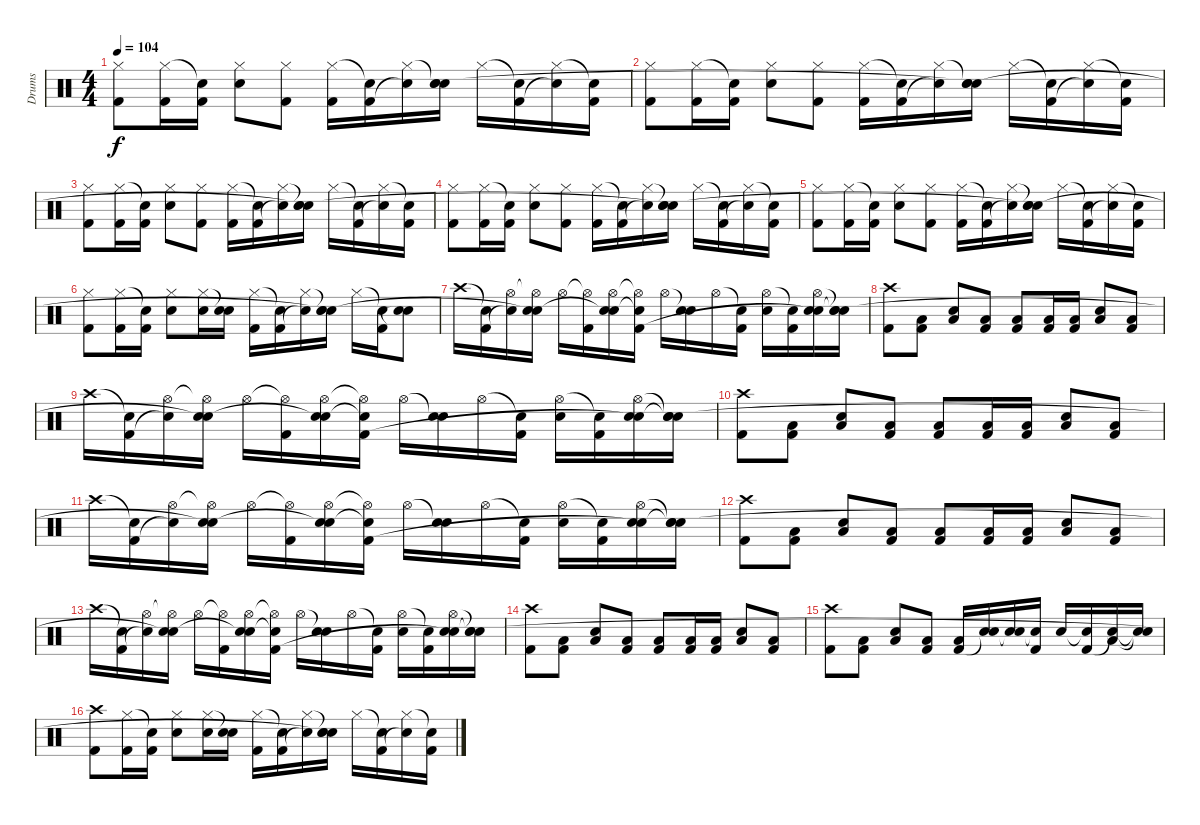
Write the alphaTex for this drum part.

\track ("Drums" "Drums") {instrument percussion}
\staff {score}
\articulation defaults
\ts (4 4)
\tempo 104
\clef neutral
\ks c
("Hi-Hat (closed)" "Kick (hit) 2").8{dy f} ("Hi-Hat (closed)" "Kick (hit) 2").16 ("Snare (hit)"{t} "Kick (hit) 2").16 ("Hi-Hat (closed)" "Snare (hit) 2").8 ("Hi-Hat (closed)" "Kick (hit) 2").8 ("Hi-Hat (closed)" "Kick (hit) 2").16 ("Snare (hit)"{t} "Kick (hit) 2").16 ("Hi-Hat (closed)" "Snare (hit)"{t}).16 ("Snare (hit)"{t} "Snare (hit) 2" "Snare (hit)"{t}).16 "Hi-Hat (closed)".16 ("Snare (hit)"{t} "Kick (hit) 2").16 ("Hi-Hat (closed)" "Snare (hit)"{t}).16 ("Snare (hit)"{t} "Kick (hit) 2").16 |
("Hi-Hat (closed)" "Kick (hit) 2").8 ("Hi-Hat (closed)" "Kick (hit) 2").16 ("Snare (hit)"{t} "Kick (hit) 2").16 ("Hi-Hat (closed)" "Snare (hit) 2").8 ("Hi-Hat (closed)" "Kick (hit) 2").8 ("Hi-Hat (closed)" "Kick (hit) 2").16 ("Snare (hit)"{t} "Kick (hit) 2").16 ("Hi-Hat (closed)" "Snare (hit)"{t}).16 ("Snare (hit)"{t} "Snare (hit) 2" "Snare (hit)"{t}).16 "Hi-Hat (closed)".16 ("Snare (hit)"{t} "Kick (hit) 2").16 ("Hi-Hat (closed)" "Snare (hit)"{t}).16 ("Snare (hit)"{t} "Kick (hit) 2").16 |
("Hi-Hat (closed)" "Kick (hit) 2").8 ("Hi-Hat (closed)" "Kick (hit) 2").16 ("Snare (hit)"{t} "Kick (hit) 2").16 ("Hi-Hat (closed)" "Snare (hit) 2").8 ("Hi-Hat (closed)" "Kick (hit) 2").8 ("Hi-Hat (closed)" "Kick (hit) 2").16 ("Snare (hit)"{t} "Kick (hit) 2").16 ("Hi-Hat (closed)" "Snare (hit)"{t}).16 ("Snare (hit)"{t} "Snare (hit) 2" "Snare (hit)"{t}).16 "Hi-Hat (closed)".16 ("Snare (hit)"{t} "Kick (hit) 2").16 ("Hi-Hat (closed)" "Snare (hit)"{t}).16 ("Snare (hit)"{t} "Kick (hit) 2").16 |
("Hi-Hat (closed)" "Kick (hit) 2").8 ("Hi-Hat (closed)" "Kick (hit) 2").16 ("Snare (hit)"{t} "Kick (hit) 2").16 ("Hi-Hat (closed)" "Snare (hit) 2").8 ("Hi-Hat (closed)" "Kick (hit) 2").8 ("Hi-Hat (closed)" "Kick (hit) 2").16 ("Snare (hit)"{t} "Kick (hit) 2").16 ("Hi-Hat (closed)" "Snare (hit)"{t}).16 ("Snare (hit)"{t} "Snare (hit) 2" "Snare (hit)"{t}).16 "Hi-Hat (closed)".16 ("Snare (hit)"{t} "Kick (hit) 2").16 ("Hi-Hat (closed)" "Snare (hit)"{t}).16 ("Snare (hit)"{t} "Kick (hit) 2").16 |
("Hi-Hat (closed)" "Kick (hit) 2").8 ("Hi-Hat (closed)" "Kick (hit) 2").16 ("Snare (hit)"{t} "Kick (hit) 2").16 ("Hi-Hat (closed)" "Snare (hit) 2").8 ("Hi-Hat (closed)" "Kick (hit) 2").8 ("Hi-Hat (closed)" "Kick (hit) 2").16 ("Snare (hit)"{t} "Kick (hit) 2").16 ("Hi-Hat (closed)" "Snare (hit)"{t}).16 ("Snare (hit)"{t} "Snare (hit) 2" "Snare (hit)"{t}).16 "Hi-Hat (closed)".16 ("Snare (hit)"{t} "Kick (hit) 2").16 ("Hi-Hat (closed)" "Snare (hit)"{t}).16 ("Snare (hit)"{t} "Kick (hit) 2").16 |
("Hi-Hat (closed)" "Kick (hit) 2").8 ("Hi-Hat (closed)" "Kick (hit) 2").16 ("Snare (hit)"{t} "Kick (hit) 2").16 ("Hi-Hat (closed)" "Snare (hit) 2").8 ("Hi-Hat (closed)" "Snare (hit) 2").16 ("Snare (hit)"{t} "Snare (hit) 2").16 ("Hi-Hat (closed)" "Kick (hit) 2").16 ("Snare (hit)"{t} "Kick (hit) 2").16 ("Hi-Hat (closed)" "Snare (hit)"{t}).16 ("Snare (hit)"{t} "Snare (hit) 2" "Snare (hit)"{t}).16 "Hi-Hat (closed)".16 ("Snare (hit)"{t} "Kick (hit) 2").16 ("Snare (hit) 2" "Snare (hit)"{t}).8 |
"Crash high (hit)".16 ("Snare (hit)"{t} "Kick (hit) 2").16 ("Hi-Hat (open)" "Snare (hit)"{t}).16 ("Hi-Hat (open)"{t} "Snare (hit) 2" "Snare (hit)"{t}).16 "Hi-Hat (open)".16 ("Hi-Hat (open)"{t} "Kick (hit) 2").16 ("Hi-Hat (open)" "Snare (hit) 2" "Snare (hit)"{t}).16 ("Hi-Hat (open)"{t} "Snare (hit)"{t} "Kick (hit) 2").16 "Hi-Hat (open)".16 ("Snare (hit)"{t} "Snare (hit) 2").16 "Hi-Hat (open)".16 ("Snare (hit)"{t} "Kick (hit) 2").16 ("Hi-Hat (open)" "Snare (hit) 2").16 ("Snare (hit)"{t} "Kick (hit) 2").16 ("Hi-Hat (open)" "Snare (hit) 2" "Snare (hit)"{t}).16 ("Snare (hit)"{t} "Snare (hit) 2" "Snare (hit)"{t}).16 |
("Crash high (hit)" "Kick (hit) 2").8 ("Low Tom (hit)" "Kick (hit) 2").8 ("Low Tom (hit)" "Snare (hit) 2").8 ("Low Tom (hit)" "Kick (hit) 2").8 ("Low Tom (hit)" "Kick (hit) 2").8 ("Low Tom (hit)" "Kick (hit) 2").16 ("Low Tom (hit)" "Kick (hit) 2").16 ("Low Tom (hit)" "Snare (hit) 2").8 ("Low Tom (hit)" "Kick (hit) 2").8 |
"Crash high (hit)".16 ("Snare (hit)"{t} "Kick (hit) 2").16 ("Hi-Hat (open)" "Snare (hit)"{t}).16 ("Hi-Hat (open)"{t} "Snare (hit) 2" "Snare (hit)"{t}).16 "Hi-Hat (open)".16 ("Hi-Hat (open)"{t} "Kick (hit) 2").16 ("Hi-Hat (open)" "Snare (hit) 2" "Snare (hit)"{t}).16 ("Hi-Hat (open)"{t} "Snare (hit)"{t} "Kick (hit) 2").16 "Hi-Hat (open)".16 ("Snare (hit)"{t} "Snare (hit) 2").16 "Hi-Hat (open)".16 ("Snare (hit)"{t} "Kick (hit) 2").16 ("Hi-Hat (open)" "Snare (hit) 2").16 ("Snare (hit)"{t} "Kick (hit) 2").16 ("Hi-Hat (open)" "Snare (hit) 2" "Snare (hit)"{t}).16 ("Snare (hit)"{t} "Snare (hit) 2" "Snare (hit)"{t}).16 |
("Crash high (hit)" "Kick (hit) 2").8 ("Low Tom (hit)" "Kick (hit) 2").8 ("Low Tom (hit)" "Snare (hit) 2").8 ("Low Tom (hit)" "Kick (hit) 2").8 ("Low Tom (hit)" "Kick (hit) 2").8 ("Low Tom (hit)" "Kick (hit) 2").16 ("Low Tom (hit)" "Kick (hit) 2").16 ("Low Tom (hit)" "Snare (hit) 2").8 ("Low Tom (hit)" "Kick (hit) 2").8 |
"Crash high (hit)".16 ("Snare (hit)"{t} "Kick (hit) 2").16 ("Hi-Hat (open)" "Snare (hit)"{t}).16 ("Hi-Hat (open)"{t} "Snare (hit) 2" "Snare (hit)"{t}).16 "Hi-Hat (open)".16 ("Hi-Hat (open)"{t} "Kick (hit) 2").16 ("Hi-Hat (open)" "Snare (hit) 2" "Snare (hit)"{t}).16 ("Hi-Hat (open)"{t} "Snare (hit)"{t} "Kick (hit) 2").16 "Hi-Hat (open)".16 ("Snare (hit)"{t} "Snare (hit) 2").16 "Hi-Hat (open)".16 ("Snare (hit)"{t} "Kick (hit) 2").16 ("Hi-Hat (open)" "Snare (hit) 2").16 ("Snare (hit)"{t} "Kick (hit) 2").16 ("Hi-Hat (open)" "Snare (hit) 2" "Snare (hit)"{t}).16 ("Snare (hit)"{t} "Snare (hit) 2" "Snare (hit)"{t}).16 |
("Crash high (hit)" "Kick (hit) 2").8 ("Low Tom (hit)" "Kick (hit) 2").8 ("Low Tom (hit)" "Snare (hit) 2").8 ("Low Tom (hit)" "Kick (hit) 2").8 ("Low Tom (hit)" "Kick (hit) 2").8 ("Low Tom (hit)" "Kick (hit) 2").16 ("Low Tom (hit)" "Kick (hit) 2").16 ("Low Tom (hit)" "Snare (hit) 2").8 ("Low Tom (hit)" "Kick (hit) 2").8 |
"Crash high (hit)".16 ("Snare (hit)"{t} "Kick (hit) 2").16 ("Hi-Hat (open)" "Snare (hit)"{t}).16 ("Hi-Hat (open)"{t} "Snare (hit) 2" "Snare (hit)"{t}).16 "Hi-Hat (open)".16 ("Hi-Hat (open)"{t} "Kick (hit) 2").16 ("Hi-Hat (open)" "Snare (hit) 2" "Snare (hit)"{t}).16 ("Hi-Hat (open)"{t} "Snare (hit)"{t} "Kick (hit) 2").16 "Hi-Hat (open)".16 ("Snare (hit)"{t} "Snare (hit) 2").16 "Hi-Hat (open)".16 ("Snare (hit)"{t} "Kick (hit) 2").16 ("Hi-Hat (open)" "Snare (hit) 2").16 ("Snare (hit)"{t} "Kick (hit) 2").16 ("Hi-Hat (open)" "Snare (hit) 2" "Snare (hit)"{t}).16 ("Snare (hit)"{t} "Snare (hit) 2" "Snare (hit)"{t}).16 |
("Crash high (hit)" "Kick (hit) 2").8 ("Low Tom (hit)" "Kick (hit) 2").8 ("Low Tom (hit)" "Snare (hit) 2").8 ("Low Tom (hit)" "Kick (hit) 2").8 ("Low Tom (hit)" "Kick (hit) 2").8 ("Low Tom (hit)" "Kick (hit) 2").16 ("Low Tom (hit)" "Kick (hit) 2").16 ("Low Tom (hit)" "Snare (hit) 2").8 ("Low Tom (hit)" "Kick (hit) 2").8 |
("Crash high (hit)" "Kick (hit) 2").8 ("Low Tom (hit)" "Kick (hit) 2").8 ("Low Tom (hit)" "Snare (hit) 2").8 ("Low Tom (hit)" "Kick (hit) 2").8 ("Low Tom (hit)" "Kick (hit) 2").16 ("Snare (hit) 2" "Snare (hit)"{t}).16 ("Snare (hit) 2" "Snare (hit)"{t}).16 ("Snare (hit)"{t} "Kick (hit) 2").16 "Snare (hit) 2".16 ("Snare (hit)"{t} "Kick (hit) 2").16 ("Low Tom (hit)" "Snare (hit)"{t}).16 ("Snare (hit)"{t} "Snare (hit)"{t}).16 |
("Crash high (hit)" "Kick (hit) 2").8 ("Hi-Hat (closed)" "Kick (hit) 2").16 ("Snare (hit)"{t} "Kick (hit) 2").16 ("Hi-Hat (closed)" "Snare (hit) 2").8 ("Hi-Hat (closed)" "Snare (hit) 2").16 ("Snare (hit)"{t} "Snare (hit) 2").16 ("Hi-Hat (closed)" "Kick (hit) 2").16 ("Snare (hit)"{t} "Kick (hit) 2").16 ("Hi-Hat (closed)" "Snare (hit)"{t}).16 ("Snare (hit)"{t} "Snare (hit) 2" "Snare (hit)"{t}).16 "Hi-Hat (closed)".16 ("Snare (hit)"{t} "Kick (hit) 2").16 ("Hi-Hat (closed)" "Snare (hit)"{t}).16 ("Snare (hit)"{t} "Kick (hit) 2").16
